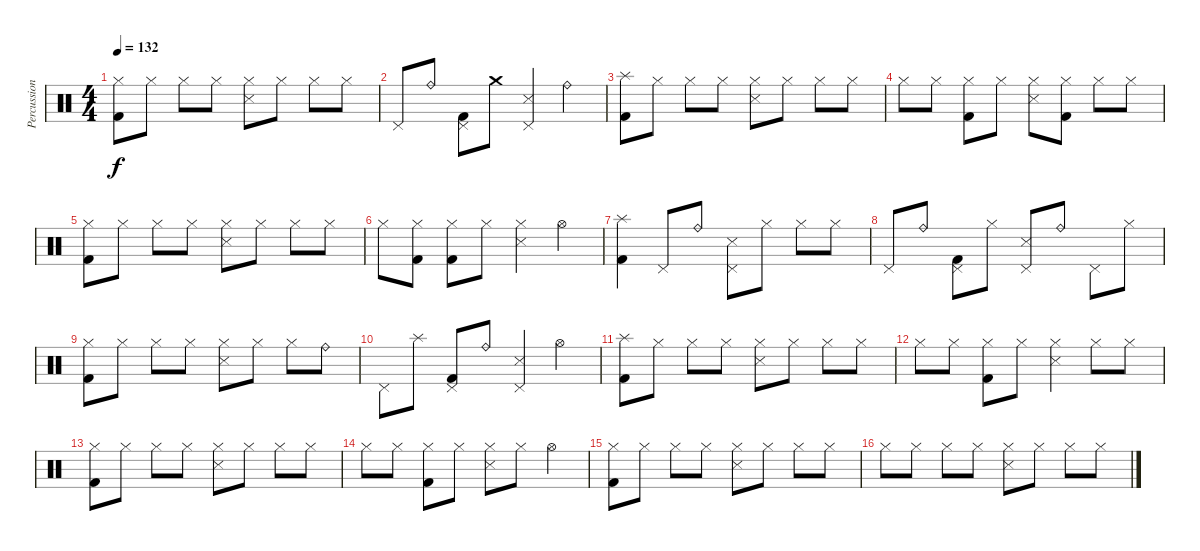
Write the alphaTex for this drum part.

\track ("Percussion" "Percussion") {instrument percussion}
\staff {score}
\articulation defaults
\ts (4 4)
\tempo 132
\clef neutral
\ks c
("Hi-Hat (closed)" "Kick (hit) 2").8{dy f} "Hi-Hat (closed)".8 "Hi-Hat (closed)".8 "Hi-Hat (closed)".8 ("Hi-Hat (closed)" "Snare (side stick) 3").8 "Hi-Hat (closed)".8 "Hi-Hat (closed)".8 "Hi-Hat (closed)".8 |
"Pedal Hi-Hat (hit)".8 "Ride (bell)".8 ("Pedal Hi-Hat (hit)" "Kick (hit) 2").8 "Crash medium (hit)".8 ("Pedal Hi-Hat (hit)" "Snare (side stick) 3").4 "Ride (bell)".4 |
("Splash (hit)" "Kick (hit) 2").8 "Hi-Hat (closed)".8 "Hi-Hat (closed)".8 "Hi-Hat (closed)".8 ("Hi-Hat (closed)" "Snare (side stick) 3").8 "Hi-Hat (closed)".8 "Hi-Hat (closed)".8 "Hi-Hat (closed)".8 |
"Hi-Hat (closed)".8 "Hi-Hat (closed)".8 ("Hi-Hat (closed)" "Kick (hit) 2").8 "Hi-Hat (closed)".8 ("Hi-Hat (closed)" "Snare (side stick) 3").8 ("Hi-Hat (closed)" "Kick (hit) 2").8 "Hi-Hat (closed)".8 "Hi-Hat (closed)".8 |
("Hi-Hat (closed)" "Kick (hit) 2").8 "Hi-Hat (closed)".8 "Hi-Hat (closed)".8 "Hi-Hat (closed)".8 ("Hi-Hat (closed)" "Snare (side stick) 3").8 "Hi-Hat (closed)".8 "Hi-Hat (closed)".8 "Hi-Hat (closed)".8 |
"Hi-Hat (closed)".8 ("Hi-Hat (closed)" "Kick (hit) 2").8 ("Hi-Hat (closed)" "Kick (hit) 2").8 "Hi-Hat (closed)".8 ("Hi-Hat (closed)" "Snare (side stick) 3").4 "Hi-Hat (open)".4 |
("Splash (hit)" "Kick (hit) 2").4 "Pedal Hi-Hat (hit)".8 "Ride (bell)".8 ("Pedal Hi-Hat (hit)" "Snare (side stick) 3").8 "Hi-Hat (closed)".8 "Hi-Hat (closed)".8 "Hi-Hat (closed)".8 |
"Pedal Hi-Hat (hit)".8 "Ride (bell)".8 ("Pedal Hi-Hat (hit)" "Kick (hit) 2").8 "Hi-Hat (closed)".8 ("Pedal Hi-Hat (hit)" "Snare (side stick) 3").8 "Ride (bell)".8 "Pedal Hi-Hat (hit)".8 "Hi-Hat (closed)".8 |
("Hi-Hat (closed)" "Kick (hit) 2").8 "Hi-Hat (closed)".8 "Hi-Hat (closed)".8 "Hi-Hat (closed)".8 ("Hi-Hat (closed)" "Snare (side stick) 3").8 "Hi-Hat (closed)".8 "Hi-Hat (closed)".8 "Ride (bell)".8 |
"Pedal Hi-Hat (hit)".8 "Splash (hit)".8 ("Pedal Hi-Hat (hit)" "Kick (hit) 2").8 "Ride (bell)".8 ("Pedal Hi-Hat (hit)" "Snare (side stick) 3").4 "Hi-Hat (open)".4 |
("Splash (hit)" "Kick (hit) 2").8 "Hi-Hat (closed)".8 "Hi-Hat (closed)".8 "Hi-Hat (closed)".8 ("Hi-Hat (closed)" "Snare (side stick) 3").8 "Hi-Hat (closed)".8 "Hi-Hat (closed)".8 "Hi-Hat (closed)".8 |
"Hi-Hat (closed)".8 "Hi-Hat (closed)".8 ("Hi-Hat (closed)" "Kick (hit) 2").8 "Hi-Hat (closed)".8 ("Hi-Hat (closed)" "Snare (side stick) 3").4 "Hi-Hat (closed)".8 "Hi-Hat (closed)".8 |
("Hi-Hat (closed)" "Kick (hit) 2").8 "Hi-Hat (closed)".8 "Hi-Hat (closed)".8 "Hi-Hat (closed)".8 ("Hi-Hat (closed)" "Snare (side stick) 3").8 "Hi-Hat (closed)".8 "Hi-Hat (closed)".8 "Hi-Hat (closed)".8 |
"Hi-Hat (closed)".8 "Hi-Hat (closed)".8 ("Hi-Hat (closed)" "Kick (hit) 2").8 "Hi-Hat (closed)".8 ("Hi-Hat (closed)" "Snare (side stick) 3").8 "Hi-Hat (closed)".8 "Hi-Hat (open)".4 |
("Hi-Hat (closed)" "Kick (hit) 2").8 "Hi-Hat (closed)".8 "Hi-Hat (closed)".8 "Hi-Hat (closed)".8 ("Hi-Hat (closed)" "Snare (side stick) 3").8 "Hi-Hat (closed)".8 "Hi-Hat (closed)".8 "Hi-Hat (closed)".8 |
"Hi-Hat (closed)".8 "Hi-Hat (closed)".8 "Hi-Hat (closed)".8 "Hi-Hat (closed)".8 ("Hi-Hat (closed)" "Snare (side stick) 3").8 "Hi-Hat (closed)".8 "Hi-Hat (closed)".8 "Hi-Hat (closed)".8
